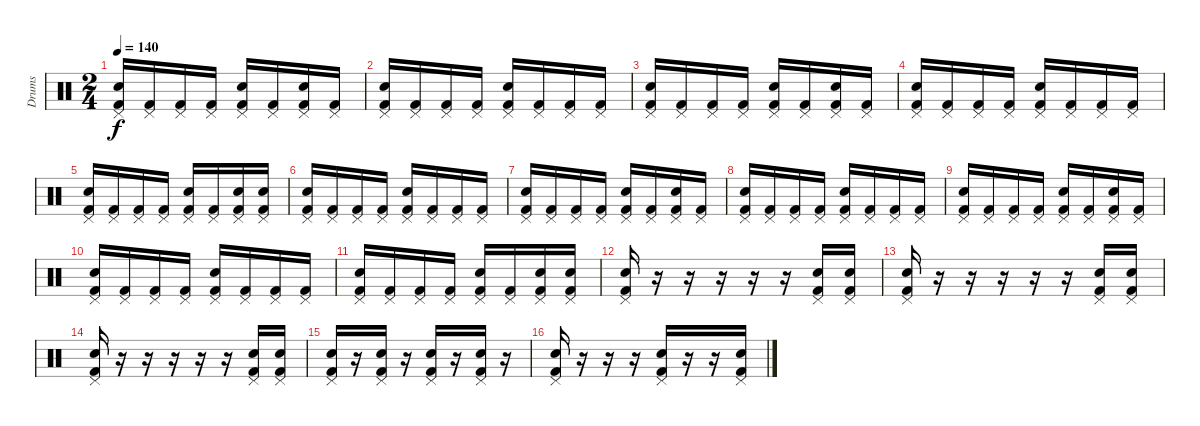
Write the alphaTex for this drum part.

\track ("Drums" "Drums") {instrument percussion}
\staff {score}
\articulation defaults
\ts (2 4)
\tempo 140
\clef neutral
\ks c
("Pedal Hi-Hat (hit)" "Electric Snare (hit)" "Kick (hit) 2").16{dy f} ("Pedal Hi-Hat (hit)" "Kick (hit) 2").16 ("Pedal Hi-Hat (hit)" "Kick (hit) 2").16 ("Pedal Hi-Hat (hit)" "Kick (hit) 2").16 ("Pedal Hi-Hat (hit)" "Electric Snare (hit)" "Kick (hit) 2").16 ("Pedal Hi-Hat (hit)" "Kick (hit) 2").16 ("Pedal Hi-Hat (hit)" "Electric Snare (hit)" "Kick (hit) 2").16 ("Pedal Hi-Hat (hit)" "Kick (hit) 2").16 |
("Pedal Hi-Hat (hit)" "Electric Snare (hit)" "Kick (hit) 2").16 ("Pedal Hi-Hat (hit)" "Kick (hit) 2").16 ("Pedal Hi-Hat (hit)" "Kick (hit) 2").16 ("Pedal Hi-Hat (hit)" "Kick (hit) 2").16 ("Pedal Hi-Hat (hit)" "Electric Snare (hit)" "Kick (hit) 2").16 ("Pedal Hi-Hat (hit)" "Kick (hit) 2").16 ("Pedal Hi-Hat (hit)" "Kick (hit) 2").16 ("Pedal Hi-Hat (hit)" "Kick (hit) 2").16 |
("Pedal Hi-Hat (hit)" "Electric Snare (hit)" "Kick (hit) 2").16 ("Pedal Hi-Hat (hit)" "Kick (hit) 2").16 ("Pedal Hi-Hat (hit)" "Kick (hit) 2").16 ("Pedal Hi-Hat (hit)" "Kick (hit) 2").16 ("Pedal Hi-Hat (hit)" "Electric Snare (hit)" "Kick (hit) 2").16 ("Pedal Hi-Hat (hit)" "Kick (hit) 2").16 ("Pedal Hi-Hat (hit)" "Electric Snare (hit)" "Kick (hit) 2").16 ("Pedal Hi-Hat (hit)" "Kick (hit) 2").16 |
("Pedal Hi-Hat (hit)" "Electric Snare (hit)" "Kick (hit) 2").16 ("Pedal Hi-Hat (hit)" "Kick (hit) 2").16 ("Pedal Hi-Hat (hit)" "Kick (hit) 2").16 ("Pedal Hi-Hat (hit)" "Kick (hit) 2").16 ("Pedal Hi-Hat (hit)" "Electric Snare (hit)" "Kick (hit) 2").16 ("Pedal Hi-Hat (hit)" "Kick (hit) 2").16 ("Pedal Hi-Hat (hit)" "Kick (hit) 2").16 ("Pedal Hi-Hat (hit)" "Kick (hit) 2").16 |
("Pedal Hi-Hat (hit)" "Electric Snare (hit)" "Kick (hit) 2").16 ("Pedal Hi-Hat (hit)" "Kick (hit) 2").16 ("Pedal Hi-Hat (hit)" "Kick (hit) 2").16 ("Pedal Hi-Hat (hit)" "Kick (hit) 2").16 ("Pedal Hi-Hat (hit)" "Electric Snare (hit)" "Kick (hit) 2").16 ("Pedal Hi-Hat (hit)" "Kick (hit) 2").16 ("Pedal Hi-Hat (hit)" "Electric Snare (hit)" "Kick (hit) 2").16 ("Pedal Hi-Hat (hit)" "Electric Snare (hit)" "Kick (hit) 2").16 |
("Pedal Hi-Hat (hit)" "Electric Snare (hit)" "Kick (hit) 2").16 ("Pedal Hi-Hat (hit)" "Kick (hit) 2").16 ("Pedal Hi-Hat (hit)" "Kick (hit) 2").16 ("Pedal Hi-Hat (hit)" "Kick (hit) 2").16 ("Pedal Hi-Hat (hit)" "Electric Snare (hit)" "Kick (hit) 2").16 ("Pedal Hi-Hat (hit)" "Kick (hit) 2").16 ("Pedal Hi-Hat (hit)" "Kick (hit) 2").16 ("Pedal Hi-Hat (hit)" "Kick (hit) 2").16 |
("Pedal Hi-Hat (hit)" "Electric Snare (hit)" "Kick (hit) 2").16 ("Pedal Hi-Hat (hit)" "Kick (hit) 2").16 ("Pedal Hi-Hat (hit)" "Kick (hit) 2").16 ("Pedal Hi-Hat (hit)" "Kick (hit) 2").16 ("Pedal Hi-Hat (hit)" "Electric Snare (hit)" "Kick (hit) 2").16 ("Pedal Hi-Hat (hit)" "Kick (hit) 2").16 ("Pedal Hi-Hat (hit)" "Electric Snare (hit)" "Kick (hit) 2").16 ("Pedal Hi-Hat (hit)" "Kick (hit) 2").16 |
("Pedal Hi-Hat (hit)" "Electric Snare (hit)" "Kick (hit) 2").16 ("Pedal Hi-Hat (hit)" "Kick (hit) 2").16 ("Pedal Hi-Hat (hit)" "Kick (hit) 2").16 ("Pedal Hi-Hat (hit)" "Kick (hit) 2").16 ("Pedal Hi-Hat (hit)" "Electric Snare (hit)" "Kick (hit) 2").16 ("Pedal Hi-Hat (hit)" "Kick (hit) 2").16 ("Pedal Hi-Hat (hit)" "Kick (hit) 2").16 ("Pedal Hi-Hat (hit)" "Kick (hit) 2").16 |
("Pedal Hi-Hat (hit)" "Electric Snare (hit)" "Kick (hit) 2").16 ("Pedal Hi-Hat (hit)" "Kick (hit) 2").16 ("Pedal Hi-Hat (hit)" "Kick (hit) 2").16 ("Pedal Hi-Hat (hit)" "Kick (hit) 2").16 ("Pedal Hi-Hat (hit)" "Electric Snare (hit)" "Kick (hit) 2").16 ("Pedal Hi-Hat (hit)" "Kick (hit) 2").16 ("Pedal Hi-Hat (hit)" "Electric Snare (hit)" "Kick (hit) 2").16 ("Pedal Hi-Hat (hit)" "Kick (hit) 2").16 |
("Pedal Hi-Hat (hit)" "Electric Snare (hit)" "Kick (hit) 2").16 ("Pedal Hi-Hat (hit)" "Kick (hit) 2").16 ("Pedal Hi-Hat (hit)" "Kick (hit) 2").16 ("Pedal Hi-Hat (hit)" "Kick (hit) 2").16 ("Pedal Hi-Hat (hit)" "Electric Snare (hit)" "Kick (hit) 2").16 ("Pedal Hi-Hat (hit)" "Kick (hit) 2").16 ("Pedal Hi-Hat (hit)" "Kick (hit) 2").16 ("Pedal Hi-Hat (hit)" "Kick (hit) 2").16 |
("Pedal Hi-Hat (hit)" "Electric Snare (hit)" "Kick (hit) 2").16 ("Pedal Hi-Hat (hit)" "Kick (hit) 2").16 ("Pedal Hi-Hat (hit)" "Kick (hit) 2").16 ("Pedal Hi-Hat (hit)" "Kick (hit) 2").16 ("Pedal Hi-Hat (hit)" "Electric Snare (hit)" "Kick (hit) 2").16 ("Pedal Hi-Hat (hit)" "Kick (hit) 2").16 ("Pedal Hi-Hat (hit)" "Electric Snare (hit)" "Kick (hit) 2").16 ("Pedal Hi-Hat (hit)" "Electric Snare (hit)" "Kick (hit) 2").16 |
("Pedal Hi-Hat (hit)" "Electric Snare (hit)" "Kick (hit) 2").16 r.16 r.16 r.16 r.16 r.16 ("Pedal Hi-Hat (hit)" "Electric Snare (hit)" "Kick (hit) 2").16 ("Pedal Hi-Hat (hit)" "Electric Snare (hit)" "Kick (hit) 2").16 |
("Pedal Hi-Hat (hit)" "Electric Snare (hit)" "Kick (hit) 2").16 r.16 r.16 r.16 r.16 r.16 ("Pedal Hi-Hat (hit)" "Electric Snare (hit)" "Kick (hit) 2").16 ("Pedal Hi-Hat (hit)" "Electric Snare (hit)" "Kick (hit) 2").16 |
("Pedal Hi-Hat (hit)" "Electric Snare (hit)" "Kick (hit) 2").16 r.16 r.16 r.16 r.16 r.16 ("Pedal Hi-Hat (hit)" "Electric Snare (hit)" "Kick (hit) 2").16 ("Pedal Hi-Hat (hit)" "Electric Snare (hit)" "Kick (hit) 2").16 |
("Pedal Hi-Hat (hit)" "Electric Snare (hit)" "Kick (hit) 2").16 r.16 ("Pedal Hi-Hat (hit)" "Electric Snare (hit)" "Kick (hit) 2").16 r.16 ("Pedal Hi-Hat (hit)" "Electric Snare (hit)" "Kick (hit) 2").16 r.16 ("Pedal Hi-Hat (hit)" "Electric Snare (hit)" "Kick (hit) 2").16 r.16 |
("Pedal Hi-Hat (hit)" "Electric Snare (hit)" "Kick (hit) 2").16 r.16 r.16 r.16 ("Pedal Hi-Hat (hit)" "Electric Snare (hit)" "Kick (hit) 2").16 r.16 r.16 ("Pedal Hi-Hat (hit)" "Electric Snare (hit)" "Kick (hit) 2").16
